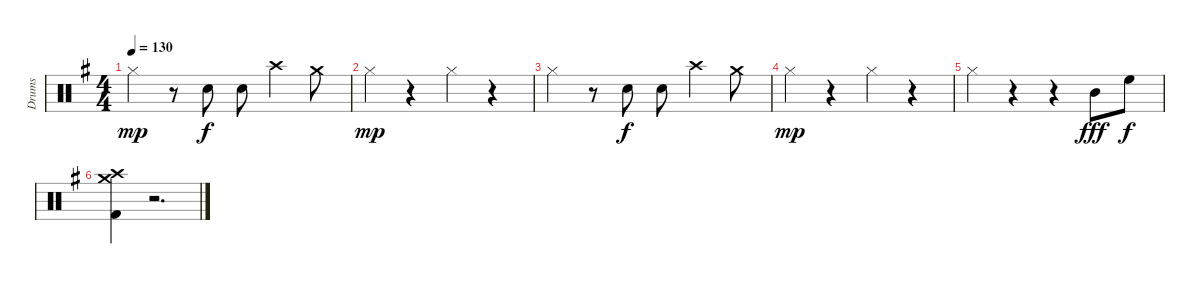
\track ("Drums" "Drums") {instrument percussion}
\staff {score}
\articulation defaults
\ts (4 4)
\tempo 130
\clef neutral
\ks g "Hi-Hat (closed)".4{dy mp}
r.8 "Snare (hit) 2".8{dy f} "Snare (hit) 2".8 "Crash high (hit)".4 "Crash medium (hit)".8 |
"Hi-Hat (closed)".4{dy mp} r.4 "Hi-Hat (closed)".4 r.4 |
"Hi-Hat (closed)".4 r.8 "Snare (hit) 2".8{dy f} "Snare (hit) 2".8 "Crash high (hit)".4 "Crash medium (hit)".8 |
"Hi-Hat (closed)".4{dy mp} r.4 "Hi-Hat (closed)".4 r.4 |
"Hi-Hat (closed)".4 r.4 r.4 "Mid Tom (hit)".8{dy fff} "High Floor Tom (hit)".8{dy f} |
("Crash high (hit)" "Crash medium (hit)" "Kick (hit) 2").4 r.2{d}
